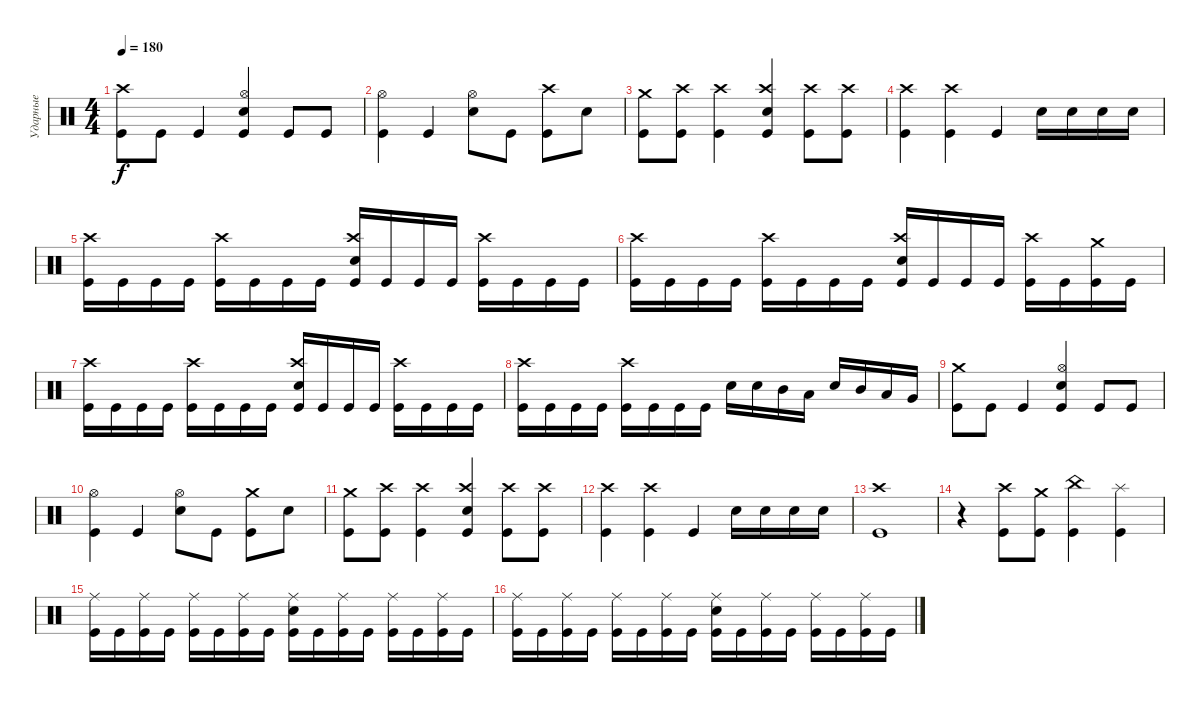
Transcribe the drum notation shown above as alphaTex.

\track ("Ударные" "Ударные") {instrument percussion}
\staff {score}
\articulation defaults
\ts (4 4)
\tempo 180
\clef neutral
\ks c
("Kick (hit)" "Crash high (hit)").8{dy f} "Kick (hit)".8 "Kick (hit)".4 ("Kick (hit)" "Hi-Hat (open)" "Snare (hit) 2").4 "Kick (hit)".8 "Kick (hit)".8 |
("Kick (hit)" "Hi-Hat (open)").4 "Kick (hit)".4 ("Snare (hit) 2" "Hi-Hat (open)").8 "Kick (hit)".8 ("Kick (hit)" "Crash high (hit)").8 "Snare (hit) 2".8 |
("Kick (hit)" "Crash medium (hit)").8 ("Kick (hit)" "Crash high (hit)").8 ("Kick (hit)" "Crash high (hit)").4 ("Kick (hit)" "Snare (hit) 2" "Crash high (hit)").4 ("Kick (hit)" "Crash high (hit)").8 ("Kick (hit)" "Crash high (hit)").8 |
("Kick (hit)" "Crash high (hit)").4 ("Kick (hit)" "Crash high (hit)").4 "Kick (hit)".4 "Snare (hit) 2".16 "Snare (hit) 2".16 "Snare (hit) 2".16 "Snare (hit) 2".16 |
("Kick (hit)" "Crash high (hit)").16 "Kick (hit)".16 "Kick (hit)".16 "Kick (hit)".16 ("Kick (hit)" "Crash high (hit)").16 "Kick (hit)".16 "Kick (hit)".16 "Kick (hit)".16 ("Kick (hit)" "Crash high (hit)" "Snare (hit) 2").16 "Kick (hit)".16 "Kick (hit)".16 "Kick (hit)".16 ("Kick (hit)" "Crash high (hit)").16 "Kick (hit)".16 "Kick (hit)".16 "Kick (hit)".16 |
("Kick (hit)" "Crash high (hit)").16 "Kick (hit)".16 "Kick (hit)".16 "Kick (hit)".16 ("Kick (hit)" "Crash high (hit)").16 "Kick (hit)".16 "Kick (hit)".16 "Kick (hit)".16 ("Kick (hit)" "Crash high (hit)" "Snare (hit) 2").16 "Kick (hit)".16 "Kick (hit)".16 "Kick (hit)".16 ("Kick (hit)" "Crash high (hit)").16 "Kick (hit)".16 ("Kick (hit)" "Crash medium (hit)").16 "Kick (hit)".16 |
("Kick (hit)" "Crash high (hit)").16 "Kick (hit)".16 "Kick (hit)".16 "Kick (hit)".16 ("Kick (hit)" "Crash high (hit)").16 "Kick (hit)".16 "Kick (hit)".16 "Kick (hit)".16 ("Kick (hit)" "Crash high (hit)" "Snare (hit) 2").16 "Kick (hit)".16 "Kick (hit)".16 "Kick (hit)".16 ("Kick (hit)" "Crash high (hit)").16 "Kick (hit)".16 "Kick (hit)".16 "Kick (hit)".16 |
("Kick (hit)" "Crash high (hit)").16 "Kick (hit)".16 "Kick (hit)".16 "Kick (hit)".16 ("Kick (hit)" "Crash high (hit)").16 "Kick (hit)".16 "Kick (hit)".16 "Kick (hit)".16 "Snare (hit) 2".16 "Snare (hit) 2".16 "Mid Tom (hit)".16 "Low Tom (hit)".16 "Snare (hit) 2".16 "Mid Tom (hit)".16 "Low Tom (hit)".16 "Very Low Tom (hit)".16 |
("Kick (hit)" "Crash medium (hit)").8 "Kick (hit)".8 "Kick (hit)".4 ("Kick (hit)" "Hi-Hat (open)" "Snare (hit) 2").4 "Kick (hit)".8 "Kick (hit)".8 |
("Kick (hit)" "Hi-Hat (open)").4 "Kick (hit)".4 ("Snare (hit) 2" "Hi-Hat (open)").8 "Kick (hit)".8 ("Kick (hit)" "Crash medium (hit)").8 "Snare (hit) 2".8 |
("Kick (hit)" "Crash medium (hit)").8 ("Kick (hit)" "Crash high (hit)").8 ("Kick (hit)" "Crash high (hit)").4 ("Kick (hit)" "Snare (hit) 2" "Crash high (hit)").4 ("Kick (hit)" "Crash high (hit)").8 ("Kick (hit)" "Crash high (hit)").8 |
("Kick (hit)" "Crash high (hit)").4 ("Kick (hit)" "Crash high (hit)").4 "Kick (hit)".4 "Snare (hit) 2".16 "Snare (hit) 2".16 "Snare (hit) 2".16 "Snare (hit) 2".16 |
("Kick (hit)" "Crash high (hit)").1 |
r.4 ("Crash high (hit)" "Kick (hit)").8 ("Crash medium (hit)" "Kick (hit)").8 ("China (hit)" "Kick (hit)").4 ("Kick (hit)" "Splash (hit)").4 |
("Kick (hit)" "Ride (middle)").16 "Kick (hit)".16 ("Kick (hit)" "Ride (middle)").16 "Kick (hit)".16 ("Kick (hit)" "Ride (middle)").16 "Kick (hit)".16 ("Kick (hit)" "Ride (middle)").16 "Kick (hit)".16 ("Kick (hit)" "Ride (middle)" "Snare (hit) 2").16 "Kick (hit)".16 ("Kick (hit)" "Ride (middle)").16 "Kick (hit)".16 ("Kick (hit)" "Ride (middle)").16 "Kick (hit)".16 ("Kick (hit)" "Ride (middle)").16 "Kick (hit)".16 |
("Kick (hit)" "Ride (middle)").16 "Kick (hit)".16 ("Kick (hit)" "Ride (middle)").16 "Kick (hit)".16 ("Kick (hit)" "Ride (middle)").16 "Kick (hit)".16 ("Kick (hit)" "Ride (middle)").16 "Kick (hit)".16 ("Kick (hit)" "Ride (middle)" "Snare (hit) 2").16 "Kick (hit)".16 ("Kick (hit)" "Ride (middle)").16 "Kick (hit)".16 ("Kick (hit)" "Ride (middle)").16 "Kick (hit)".16 ("Kick (hit)" "Ride (middle)").16 "Kick (hit)".16
